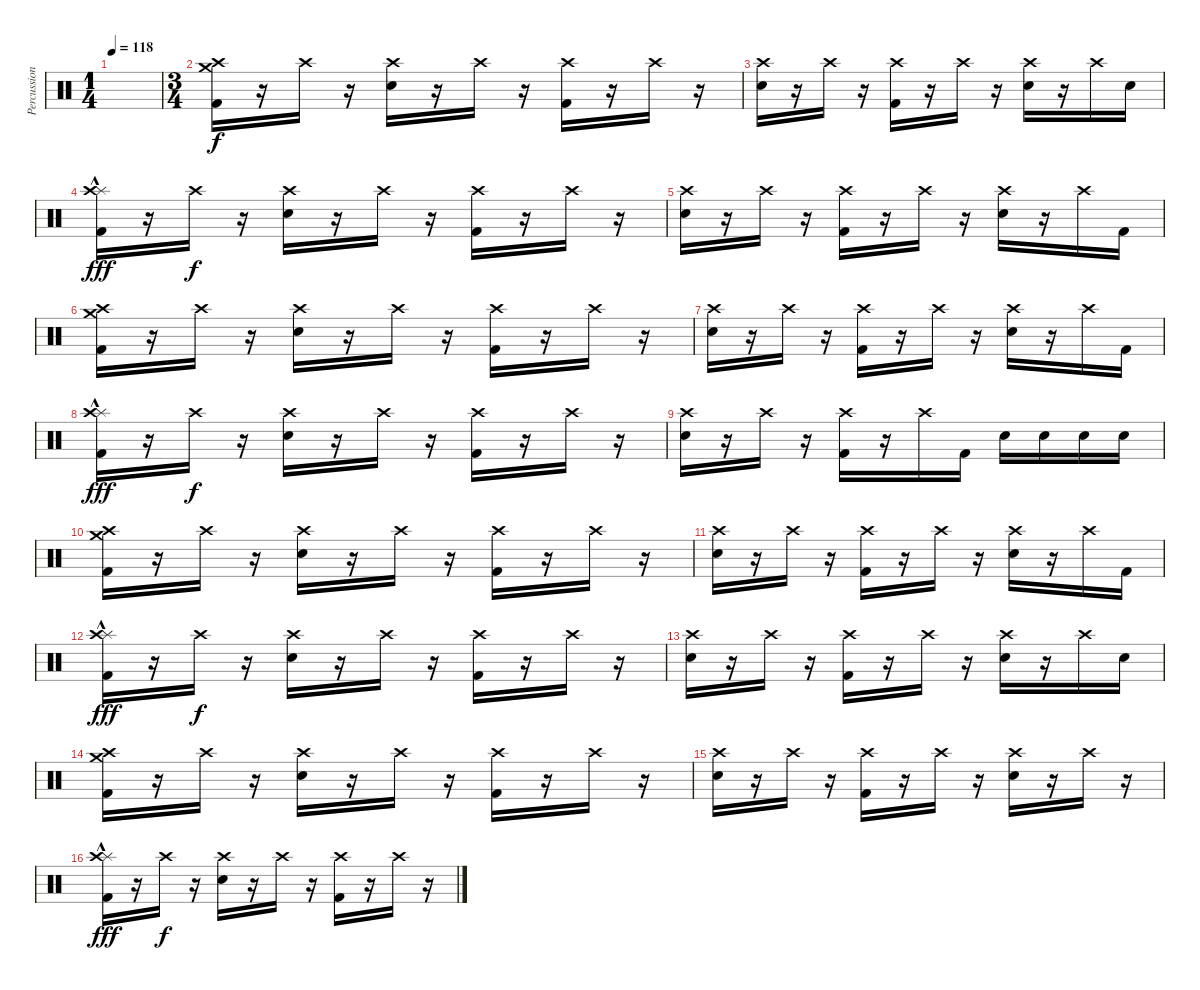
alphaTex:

\track ("Percussion" "Percussion") {instrument percussion}
\staff {score}
\articulation defaults
\ts (1 4)
\tempo 118
\clef neutral
\ks c
|
\ts (3 4)
("Crash medium (hit)" "Crash high (hit)" "Kick (hit) 2").16 r.16 "Crash high (hit)".16 r.16 ("Crash high (hit)" "Electric Snare (hit)").16 r.16 "Crash high (hit)".16 r.16 ("Crash high (hit)" "Kick (hit) 2").16 r.16 "Crash high (hit)".16 r.16 |
("Crash high (hit)" "Electric Snare (hit)").16 r.16 "Crash high (hit)".16 r.16 ("Crash high (hit)" "Kick (hit) 2").16 r.16 "Crash high (hit)".16 r.16 ("Crash high (hit)" "Electric Snare (hit)").16 r.16 "Crash high (hit)".16 "Electric Snare (hit)".16 |
("Splash (hit)"{hac} "Crash high (hit)" "Kick (hit) 2").16{dy fff} r.16 "Crash high (hit)".16{dy f} r.16 ("Crash high (hit)" "Electric Snare (hit)").16 r.16 "Crash high (hit)".16 r.16 ("Crash high (hit)" "Kick (hit) 2").16 r.16 "Crash high (hit)".16 r.16 |
("Crash high (hit)" "Electric Snare (hit)").16 r.16 "Crash high (hit)".16 r.16 ("Crash high (hit)" "Kick (hit) 2").16 r.16 "Crash high (hit)".16 r.16 ("Crash high (hit)" "Electric Snare (hit)").16 r.16 "Crash high (hit)".16 "Kick (hit) 2".16 |
("Crash medium (hit)" "Crash high (hit)" "Kick (hit) 2").16 r.16 "Crash high (hit)".16 r.16 ("Crash high (hit)" "Electric Snare (hit)").16 r.16 "Crash high (hit)".16 r.16 ("Crash high (hit)" "Kick (hit) 2").16 r.16 "Crash high (hit)".16 r.16 |
("Crash high (hit)" "Electric Snare (hit)").16 r.16 "Crash high (hit)".16 r.16 ("Crash high (hit)" "Kick (hit) 2").16 r.16 "Crash high (hit)".16 r.16 ("Crash high (hit)" "Electric Snare (hit)").16 r.16 "Crash high (hit)".16 "Kick (hit) 2".16 |
("Splash (hit)"{hac} "Crash high (hit)" "Kick (hit) 2").16{dy fff} r.16 "Crash high (hit)".16{dy f} r.16 ("Crash high (hit)" "Electric Snare (hit)").16 r.16 "Crash high (hit)".16 r.16 ("Crash high (hit)" "Kick (hit) 2").16 r.16 "Crash high (hit)".16 r.16 |
("Crash high (hit)" "Electric Snare (hit)").16 r.16 "Crash high (hit)".16 r.16 ("Crash high (hit)" "Kick (hit) 2").16 r.16 "Crash high (hit)".16 "Kick (hit) 2".16 "Electric Snare (hit)".16 "Electric Snare (hit)".16 "Electric Snare (hit)".16 "Electric Snare (hit)".16 |
("Crash medium (hit)" "Crash high (hit)" "Kick (hit) 2").16 r.16 "Crash high (hit)".16 r.16 ("Crash high (hit)" "Electric Snare (hit)").16 r.16 "Crash high (hit)".16 r.16 ("Crash high (hit)" "Kick (hit) 2").16 r.16 "Crash high (hit)".16 r.16 |
("Crash high (hit)" "Electric Snare (hit)").16 r.16 "Crash high (hit)".16 r.16 ("Crash high (hit)" "Kick (hit) 2").16 r.16 "Crash high (hit)".16 r.16 ("Crash high (hit)" "Electric Snare (hit)").16 r.16 "Crash high (hit)".16 "Kick (hit) 2".16 |
("Splash (hit)"{hac} "Crash high (hit)" "Kick (hit) 2").16{dy fff} r.16 "Crash high (hit)".16{dy f} r.16 ("Crash high (hit)" "Electric Snare (hit)").16 r.16 "Crash high (hit)".16 r.16 ("Crash high (hit)" "Kick (hit) 2").16 r.16 "Crash high (hit)".16 r.16 |
("Crash high (hit)" "Electric Snare (hit)").16 r.16 "Crash high (hit)".16 r.16 ("Crash high (hit)" "Kick (hit) 2").16 r.16 "Crash high (hit)".16 r.16 ("Crash high (hit)" "Electric Snare (hit)").16 r.16 "Crash high (hit)".16 "Electric Snare (hit)".16 |
("Crash medium (hit)" "Crash high (hit)" "Kick (hit) 2").16 r.16 "Crash high (hit)".16 r.16 ("Crash high (hit)" "Electric Snare (hit)").16 r.16 "Crash high (hit)".16 r.16 ("Crash high (hit)" "Kick (hit) 2").16 r.16 "Crash high (hit)".16 r.16 |
("Crash high (hit)" "Electric Snare (hit)").16 r.16 "Crash high (hit)".16 r.16 ("Crash high (hit)" "Kick (hit) 2").16 r.16 "Crash high (hit)".16 r.16 ("Crash high (hit)" "Electric Snare (hit)").16 r.16 "Crash high (hit)".16 r.16 |
("Splash (hit)"{hac} "Crash high (hit)" "Kick (hit) 2").16{dy fff} r.16 "Crash high (hit)".16{dy f} r.16 ("Crash high (hit)" "Electric Snare (hit)").16 r.16 "Crash high (hit)".16 r.16 ("Crash high (hit)" "Kick (hit) 2").16 r.16 "Crash high (hit)".16 r.16
